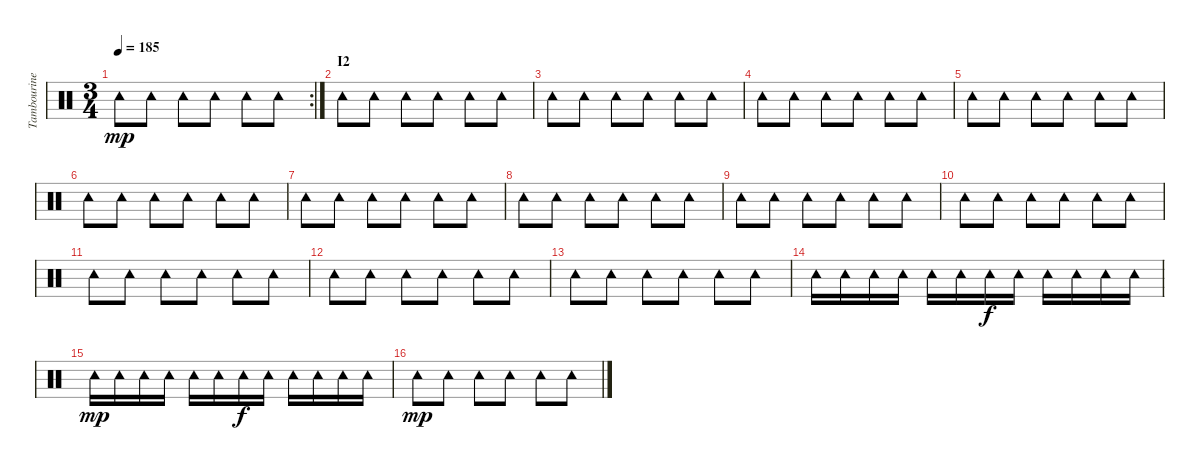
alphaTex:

\track ("Tambourine" "Tambourine") {instrument percussion}
\staff {score}
\articulation defaults
\rc 2
\ts (3 4)
\tempo 185
\clef neutral
\ks c "Tambourine (hit)".8{dy mp} "Tambourine (hit)".8 "Tambourine (hit)".8 "Tambourine (hit)".8 "Tambourine (hit)".8 "Tambourine (hit)".8
|
\section ("" "I2")
"Tambourine (hit)".8 "Tambourine (hit)".8 "Tambourine (hit)".8 "Tambourine (hit)".8 "Tambourine (hit)".8 "Tambourine (hit)".8 |
"Tambourine (hit)".8 "Tambourine (hit)".8 "Tambourine (hit)".8 "Tambourine (hit)".8 "Tambourine (hit)".8 "Tambourine (hit)".8 |
"Tambourine (hit)".8 "Tambourine (hit)".8 "Tambourine (hit)".8 "Tambourine (hit)".8 "Tambourine (hit)".8 "Tambourine (hit)".8 |
"Tambourine (hit)".8 "Tambourine (hit)".8 "Tambourine (hit)".8 "Tambourine (hit)".8 "Tambourine (hit)".8 "Tambourine (hit)".8 |
"Tambourine (hit)".8 "Tambourine (hit)".8 "Tambourine (hit)".8 "Tambourine (hit)".8 "Tambourine (hit)".8 "Tambourine (hit)".8 |
"Tambourine (hit)".8 "Tambourine (hit)".8 "Tambourine (hit)".8 "Tambourine (hit)".8 "Tambourine (hit)".8 "Tambourine (hit)".8 |
"Tambourine (hit)".8 "Tambourine (hit)".8 "Tambourine (hit)".8 "Tambourine (hit)".8 "Tambourine (hit)".8 "Tambourine (hit)".8 |
"Tambourine (hit)".8 "Tambourine (hit)".8 "Tambourine (hit)".8 "Tambourine (hit)".8 "Tambourine (hit)".8 "Tambourine (hit)".8 |
"Tambourine (hit)".8 "Tambourine (hit)".8 "Tambourine (hit)".8 "Tambourine (hit)".8 "Tambourine (hit)".8 "Tambourine (hit)".8 |
"Tambourine (hit)".8 "Tambourine (hit)".8 "Tambourine (hit)".8 "Tambourine (hit)".8 "Tambourine (hit)".8 "Tambourine (hit)".8 |
"Tambourine (hit)".8 "Tambourine (hit)".8 "Tambourine (hit)".8 "Tambourine (hit)".8 "Tambourine (hit)".8 "Tambourine (hit)".8 |
"Tambourine (hit)".8 "Tambourine (hit)".8 "Tambourine (hit)".8 "Tambourine (hit)".8 "Tambourine (hit)".8 "Tambourine (hit)".8 |
"Tambourine (hit)".16 "Tambourine (hit)".16 "Tambourine (hit)".16 "Tambourine (hit)".16 "Tambourine (hit)".16 "Tambourine (hit)".16 "Tambourine (hit)".16{dy f} "Tambourine (hit)".16 "Tambourine (hit)".16 "Tambourine (hit)".16 "Tambourine (hit)".16 "Tambourine (hit)".16 |
"Tambourine (hit)".16{dy mp} "Tambourine (hit)".16 "Tambourine (hit)".16 "Tambourine (hit)".16 "Tambourine (hit)".16 "Tambourine (hit)".16 "Tambourine (hit)".16{dy f} "Tambourine (hit)".16 "Tambourine (hit)".16 "Tambourine (hit)".16 "Tambourine (hit)".16 "Tambourine (hit)".16 |
"Tambourine (hit)".8{dy mp} "Tambourine (hit)".8 "Tambourine (hit)".8 "Tambourine (hit)".8 "Tambourine (hit)".8 "Tambourine (hit)".8
